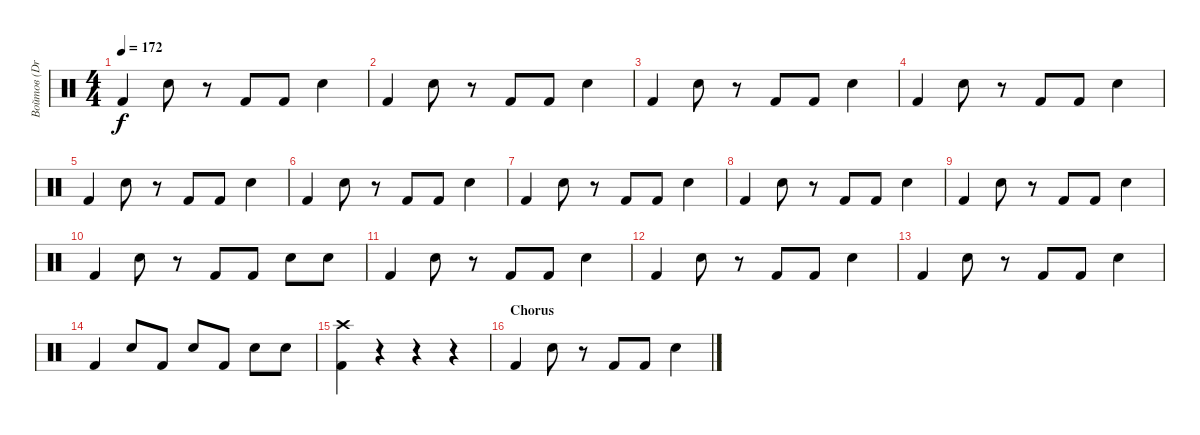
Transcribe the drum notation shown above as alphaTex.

\track ("Войтов (Drums)" "Войтов (Dr") {instrument percussion}
\staff {score}
\articulation defaults
\ts (4 4)
\tempo 172
\clef neutral
\ks c "Kick (hit) 2".4{dy f} "Electric Snare (hit)".8
r.8 "Kick (hit) 2".8 "Kick (hit) 2".8 "Electric Snare (hit)".4 |
"Kick (hit) 2".4 "Electric Snare (hit)".8 r.8 "Kick (hit) 2".8 "Kick (hit) 2".8 "Electric Snare (hit)".4 |
"Kick (hit) 2".4 "Electric Snare (hit)".8 r.8 "Kick (hit) 2".8 "Kick (hit) 2".8 "Electric Snare (hit)".4 |
"Kick (hit) 2".4 "Electric Snare (hit)".8 r.8 "Kick (hit) 2".8 "Kick (hit) 2".8 "Electric Snare (hit)".4 |
"Kick (hit) 2".4 "Electric Snare (hit)".8 r.8 "Kick (hit) 2".8 "Kick (hit) 2".8 "Electric Snare (hit)".4 |
"Kick (hit) 2".4 "Electric Snare (hit)".8 r.8 "Kick (hit) 2".8 "Kick (hit) 2".8 "Electric Snare (hit)".4 |
"Kick (hit) 2".4 "Electric Snare (hit)".8 r.8 "Kick (hit) 2".8 "Kick (hit) 2".8 "Electric Snare (hit)".4 |
"Kick (hit) 2".4 "Electric Snare (hit)".8 r.8 "Kick (hit) 2".8 "Kick (hit) 2".8 "Electric Snare (hit)".4 |
"Kick (hit) 2".4 "Electric Snare (hit)".8 r.8 "Kick (hit) 2".8 "Kick (hit) 2".8 "Electric Snare (hit)".4 |
"Kick (hit) 2".4 "Electric Snare (hit)".8 r.8 "Kick (hit) 2".8 "Kick (hit) 2".8 "Electric Snare (hit)".8 "Electric Snare (hit)".8 |
"Kick (hit) 2".4 "Electric Snare (hit)".8 r.8 "Kick (hit) 2".8 "Kick (hit) 2".8 "Electric Snare (hit)".4 |
"Kick (hit) 2".4 "Electric Snare (hit)".8 r.8 "Kick (hit) 2".8 "Kick (hit) 2".8 "Electric Snare (hit)".4 |
"Kick (hit) 2".4 "Electric Snare (hit)".8 r.8 "Kick (hit) 2".8 "Kick (hit) 2".8 "Electric Snare (hit)".4 |
"Kick (hit) 2".4 "Electric Snare (hit)".8 "Kick (hit) 2".8 "Electric Snare (hit)".8 "Kick (hit) 2".8 "Electric Snare (hit)".8 "Electric Snare (hit)".8 |
("Crash high (hit)" "Kick (hit) 2").4 r.4 r.4 r.4 |
\section ("" "Chorus")
"Kick (hit) 2".4 "Electric Snare (hit)".8 r.8 "Kick (hit) 2".8 "Kick (hit) 2".8 "Electric Snare (hit)".4
